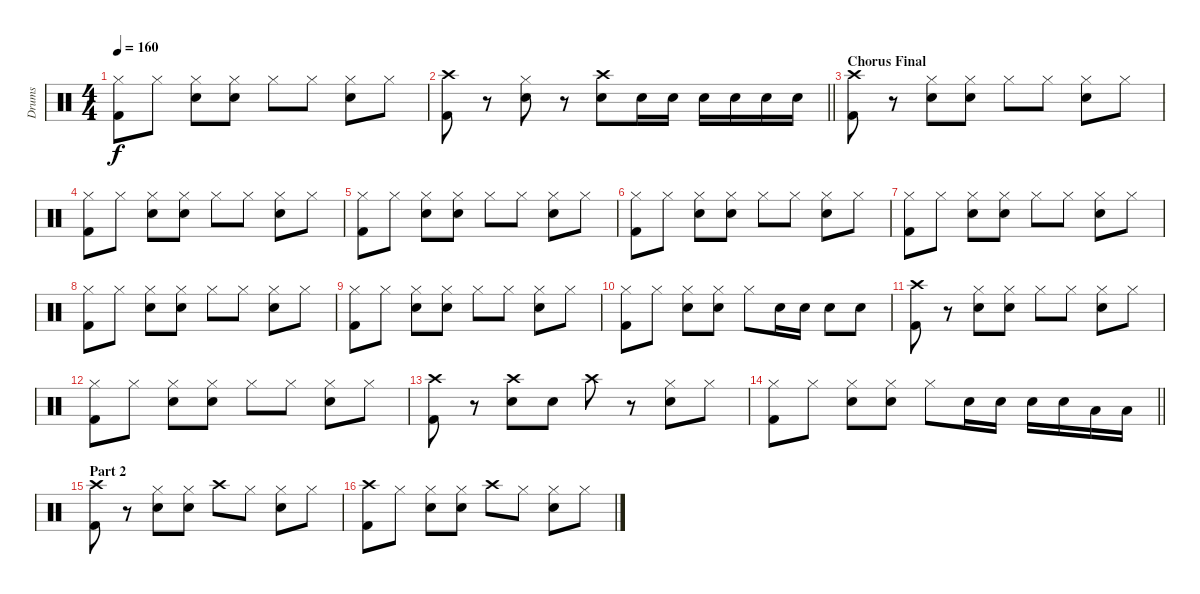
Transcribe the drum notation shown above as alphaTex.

\track ("Drums" "Drums") {instrument percussion}
\staff {score}
\articulation defaults
\ts (4 4)
\tempo 160
\clef neutral
\ks c
("Hi-Hat (closed)" "Kick (hit) 2").8{dy f} "Hi-Hat (closed)".8 ("Hi-Hat (closed)" "Electric Snare (hit)").8 ("Hi-Hat (closed)" "Electric Snare (hit)").8 "Hi-Hat (closed)".8 "Hi-Hat (closed)".8 ("Hi-Hat (closed)" "Electric Snare (hit)").8 "Hi-Hat (closed)".8 |
\barLineRight lightlight
("Crash high (hit)" "Kick (hit) 2").8 r.8 ("Hi-Hat (closed)" "Electric Snare (hit)").8 r.8 ("Crash high (hit)" "Electric Snare (hit)").8 "Electric Snare (hit)".16 "Electric Snare (hit)".16 "Electric Snare (hit)".16 "Electric Snare (hit)".16 "Electric Snare (hit)".16 "Electric Snare (hit)".16 |
\section ("" "Chorus Final")
("Crash high (hit)" "Kick (hit) 2").8 r.8 ("Hi-Hat (closed)" "Electric Snare (hit)").8 ("Hi-Hat (closed)" "Electric Snare (hit)").8 "Hi-Hat (closed)".8 "Hi-Hat (closed)".8 ("Hi-Hat (closed)" "Electric Snare (hit)").8 "Hi-Hat (closed)".8 |
("Hi-Hat (closed)" "Kick (hit) 2").8 "Hi-Hat (closed)".8 ("Hi-Hat (closed)" "Electric Snare (hit)").8 ("Hi-Hat (closed)" "Electric Snare (hit)").8 "Hi-Hat (closed)".8 "Hi-Hat (closed)".8 ("Hi-Hat (closed)" "Electric Snare (hit)").8 "Hi-Hat (closed)".8 |
("Hi-Hat (closed)" "Kick (hit) 2").8 "Hi-Hat (closed)".8 ("Hi-Hat (closed)" "Electric Snare (hit)").8 ("Hi-Hat (closed)" "Electric Snare (hit)").8 "Hi-Hat (closed)".8 "Hi-Hat (closed)".8 ("Hi-Hat (closed)" "Electric Snare (hit)").8 "Hi-Hat (closed)".8 |
("Hi-Hat (closed)" "Kick (hit) 2").8 "Hi-Hat (closed)".8 ("Hi-Hat (closed)" "Electric Snare (hit)").8 ("Hi-Hat (closed)" "Electric Snare (hit)").8 "Hi-Hat (closed)".8 "Hi-Hat (closed)".8 ("Hi-Hat (closed)" "Electric Snare (hit)").8 "Hi-Hat (closed)".8 |
("Hi-Hat (closed)" "Kick (hit) 2").8 "Hi-Hat (closed)".8 ("Hi-Hat (closed)" "Electric Snare (hit)").8 ("Hi-Hat (closed)" "Electric Snare (hit)").8 "Hi-Hat (closed)".8 "Hi-Hat (closed)".8 ("Hi-Hat (closed)" "Electric Snare (hit)").8 "Hi-Hat (closed)".8 |
("Hi-Hat (closed)" "Kick (hit) 2").8 "Hi-Hat (closed)".8 ("Hi-Hat (closed)" "Electric Snare (hit)").8 ("Hi-Hat (closed)" "Electric Snare (hit)").8 "Hi-Hat (closed)".8 "Hi-Hat (closed)".8 ("Hi-Hat (closed)" "Electric Snare (hit)").8 "Hi-Hat (closed)".8 |
("Hi-Hat (closed)" "Kick (hit) 2").8 "Hi-Hat (closed)".8 ("Hi-Hat (closed)" "Electric Snare (hit)").8 ("Hi-Hat (closed)" "Electric Snare (hit)").8 "Hi-Hat (closed)".8 "Hi-Hat (closed)".8 ("Hi-Hat (closed)" "Electric Snare (hit)").8 "Hi-Hat (closed)".8 |
("Hi-Hat (closed)" "Kick (hit) 2").8 "Hi-Hat (closed)".8 ("Hi-Hat (closed)" "Electric Snare (hit)").8 ("Hi-Hat (closed)" "Electric Snare (hit)").8 "Hi-Hat (closed)".8 "Electric Snare (hit)".16 "Electric Snare (hit)".16 "Electric Snare (hit)".8 "Electric Snare (hit)".8 |
("Crash high (hit)" "Kick (hit) 2").8 r.8 ("Hi-Hat (closed)" "Electric Snare (hit)").8 ("Hi-Hat (closed)" "Electric Snare (hit)").8 "Hi-Hat (closed)".8 "Hi-Hat (closed)".8 ("Hi-Hat (closed)" "Electric Snare (hit)").8 "Hi-Hat (closed)".8 |
("Hi-Hat (closed)" "Kick (hit) 2").8 "Hi-Hat (closed)".8 ("Hi-Hat (closed)" "Electric Snare (hit)").8 ("Hi-Hat (closed)" "Electric Snare (hit)").8 "Hi-Hat (closed)".8 "Hi-Hat (closed)".8 ("Hi-Hat (closed)" "Electric Snare (hit)").8 "Hi-Hat (closed)".8 |
("Crash high (hit)" "Kick (hit) 2").8 r.8 ("Crash high (hit)" "Electric Snare (hit)").8 "Electric Snare (hit)".8 "Crash high (hit)".8 r.8 ("Hi-Hat (closed)" "Electric Snare (hit)").8 "Hi-Hat (closed)".8 |
\barLineRight lightlight
("Hi-Hat (closed)" "Kick (hit) 2").8 "Hi-Hat (closed)".8 ("Hi-Hat (closed)" "Electric Snare (hit)").8 ("Hi-Hat (closed)" "Electric Snare (hit)").8 "Hi-Hat (closed)".8 "Electric Snare (hit)".16 "Electric Snare (hit)".16 "Electric Snare (hit)".16 "Electric Snare (hit)".16 "Low Tom (hit)".16 "Low Tom (hit)".16 |
\section ("" "Part 2")
("Crash high (hit)" "Kick (hit) 2").8 r.8 ("Hi-Hat (closed)" "Electric Snare (hit)").8 ("Hi-Hat (closed)" "Electric Snare (hit)").8 "Crash high (hit)".8 "Hi-Hat (closed)".8 ("Hi-Hat (closed)" "Electric Snare (hit)").8 "Hi-Hat (closed)".8 |
("Crash high (hit)" "Kick (hit) 2").8 "Hi-Hat (closed)".8 ("Hi-Hat (closed)" "Electric Snare (hit)").8 ("Hi-Hat (closed)" "Electric Snare (hit)").8 "Crash high (hit)".8 "Hi-Hat (closed)".8 ("Hi-Hat (closed)" "Electric Snare (hit)").8 "Hi-Hat (closed)".8
